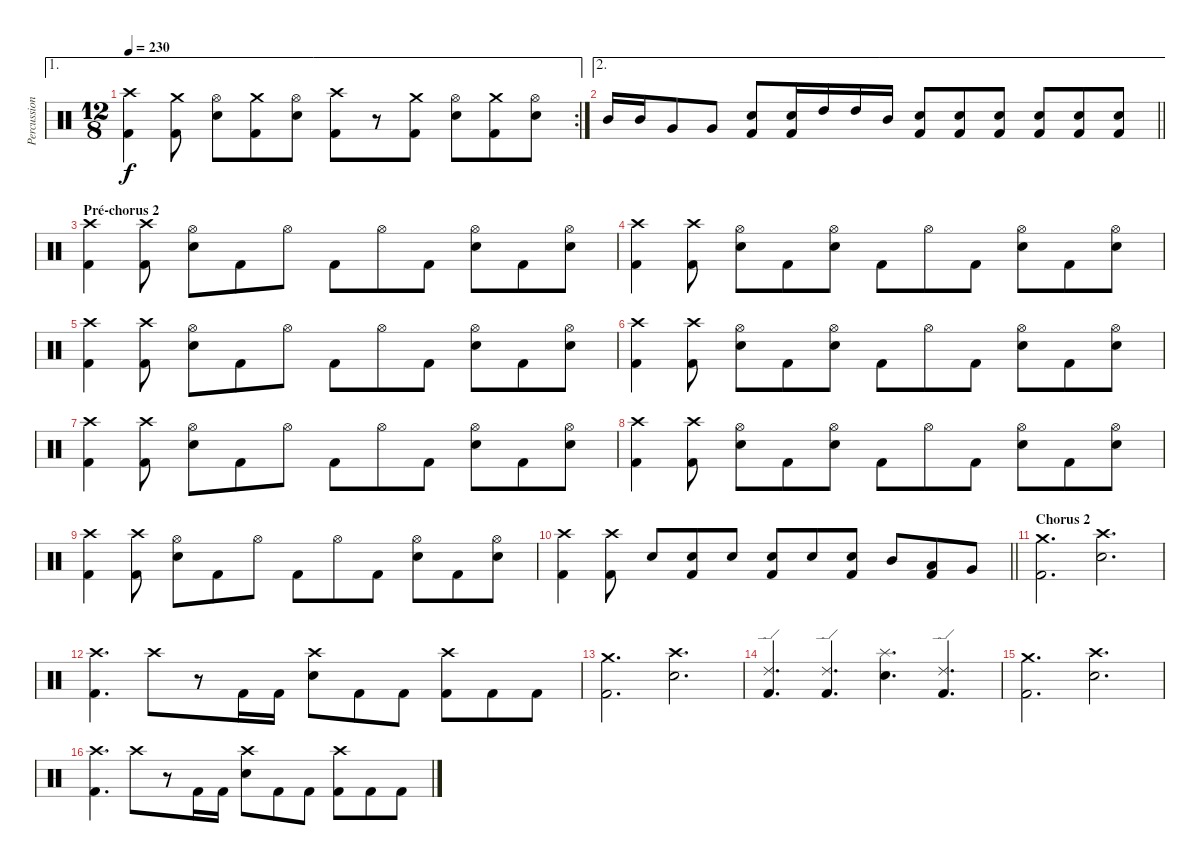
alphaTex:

\track ("Percussions" "Percussion") {instrument percussion}
\staff {score}
\articulation defaults
\ae 1
\rc 2
\ts (12 8)
\tempo 230
\clef neutral
\ks c
("Crash high (hit)" "Kick (hit) 2").4{dy f} ("Crash medium (hit)" "Kick (hit) 2").8 ("Hi-Hat (open)" "Electric Snare (hit)").8 ("Crash medium (hit)" "Kick (hit) 2").8 ("Hi-Hat (open)" "Electric Snare (hit)").8 ("Crash high (hit)" "Kick (hit) 2").8 r.8 ("Crash medium (hit)" "Kick (hit) 2").8 ("Hi-Hat (open)" "Electric Snare (hit)").8 ("Crash medium (hit)" "Kick (hit) 2").8 ("Hi-Hat (open)" "Electric Snare (hit)").8 |
\ae 2
\barLineRight lightlight "Mid Tom (hit)".16 "Mid Tom (hit)".16 "Very Low Tom (hit)".8 "Very Low Tom (hit)".8
("Electric Snare (hit)" "Kick (hit) 2").8 ("Electric Snare (hit)" "Kick (hit) 2").16 "High Tom (hit)".16 "High Tom (hit)".16 "Mid Tom (hit)".16 ("Electric Snare (hit)" "Kick (hit) 2").8 ("Electric Snare (hit)" "Kick (hit) 2").8 ("Electric Snare (hit)" "Kick (hit) 2").8 ("Electric Snare (hit)" "Kick (hit) 2").8 ("Electric Snare (hit)" "Kick (hit) 2").8 ("Electric Snare (hit)" "Kick (hit) 2").8 |
\section ("" "Pré-chorus 2")
("Crash high (hit)" "Kick (hit) 2").4 ("Crash high (hit)" "Kick (hit) 2").8 ("Hi-Hat (open)" "Electric Snare (hit)").8 "Kick (hit) 2".8 "Hi-Hat (open)".8 "Kick (hit) 2".8 "Hi-Hat (open)".8 "Kick (hit) 2".8 ("Hi-Hat (open)" "Electric Snare (hit)").8 "Kick (hit) 2".8 ("Hi-Hat (open)" "Electric Snare (hit)").8 |
("Crash high (hit)" "Kick (hit) 2").4 ("Crash high (hit)" "Kick (hit) 2").8 ("Hi-Hat (open)" "Electric Snare (hit)").8 "Kick (hit) 2".8 ("Hi-Hat (open)" "Electric Snare (hit)").8 "Kick (hit) 2".8 "Hi-Hat (open)".8 "Kick (hit) 2".8 ("Hi-Hat (open)" "Electric Snare (hit)").8 "Kick (hit) 2".8 ("Hi-Hat (open)" "Electric Snare (hit)").8 |
("Crash high (hit)" "Kick (hit) 2").4 ("Crash high (hit)" "Kick (hit) 2").8 ("Hi-Hat (open)" "Electric Snare (hit)").8 "Kick (hit) 2".8 "Hi-Hat (open)".8 "Kick (hit) 2".8 "Hi-Hat (open)".8 "Kick (hit) 2".8 ("Hi-Hat (open)" "Electric Snare (hit)").8 "Kick (hit) 2".8 ("Hi-Hat (open)" "Electric Snare (hit)").8 |
("Crash high (hit)" "Kick (hit) 2").4 ("Crash high (hit)" "Kick (hit) 2").8 ("Hi-Hat (open)" "Electric Snare (hit)").8 "Kick (hit) 2".8 ("Hi-Hat (open)" "Electric Snare (hit)").8 "Kick (hit) 2".8 "Hi-Hat (open)".8 "Kick (hit) 2".8 ("Hi-Hat (open)" "Electric Snare (hit)").8 "Kick (hit) 2".8 ("Hi-Hat (open)" "Electric Snare (hit)").8 |
("Crash high (hit)" "Kick (hit) 2").4 ("Crash high (hit)" "Kick (hit) 2").8 ("Hi-Hat (open)" "Electric Snare (hit)").8 "Kick (hit) 2".8 "Hi-Hat (open)".8 "Kick (hit) 2".8 "Hi-Hat (open)".8 "Kick (hit) 2".8 ("Hi-Hat (open)" "Electric Snare (hit)").8 "Kick (hit) 2".8 ("Hi-Hat (open)" "Electric Snare (hit)").8 |
("Crash high (hit)" "Kick (hit) 2").4 ("Crash high (hit)" "Kick (hit) 2").8 ("Hi-Hat (open)" "Electric Snare (hit)").8 "Kick (hit) 2".8 ("Hi-Hat (open)" "Electric Snare (hit)").8 "Kick (hit) 2".8 "Hi-Hat (open)".8 "Kick (hit) 2".8 ("Hi-Hat (open)" "Electric Snare (hit)").8 "Kick (hit) 2".8 ("Hi-Hat (open)" "Electric Snare (hit)").8 |
("Crash high (hit)" "Kick (hit) 2").4 ("Crash high (hit)" "Kick (hit) 2").8 ("Hi-Hat (open)" "Electric Snare (hit)").8 "Kick (hit) 2".8 "Hi-Hat (open)".8 "Kick (hit) 2".8 "Hi-Hat (open)".8 "Kick (hit) 2".8 ("Hi-Hat (open)" "Electric Snare (hit)").8 "Kick (hit) 2".8 ("Hi-Hat (open)" "Electric Snare (hit)").8 |
\barLineRight lightlight
("Crash high (hit)" "Kick (hit) 2").4 ("Crash high (hit)" "Kick (hit) 2").8 "Electric Snare (hit)".8 ("Electric Snare (hit)" "Kick (hit) 2").8 "Electric Snare (hit)".8 ("Electric Snare (hit)" "Kick (hit) 2").8 "Electric Snare (hit)".8 ("Electric Snare (hit)" "Kick (hit) 2").8 "Mid Tom (hit)".8 ("Low Tom (hit)" "Kick (hit) 2").8 "Very Low Tom (hit)".8 |
\section ("" "Chorus 2")
("Crash medium (hit)" "Kick (hit) 2").2{d} ("Crash high (hit)" "Electric Snare (hit)").2{d} |
("Crash high (hit)" "Kick (hit) 2").4{d} "Crash high (hit)".8 r.8 "Kick (hit) 2".16 "Kick (hit) 2".16 ("Crash high (hit)" "Electric Snare (hit)").8 "Kick (hit) 2".8 "Kick (hit) 2".8 ("Crash high (hit)" "Kick (hit) 2").8 "Kick (hit) 2".8 "Kick (hit) 2".8 |
("Crash medium (hit)" "Kick (hit) 2").2{d} ("Crash high (hit)" "Electric Snare (hit)").2{d} |
("Ride (edge) 2" "Kick (hit) 2").4{d} ("Ride (edge) 2" "Kick (hit) 2").4{d} ("Splash (hit)" "Electric Snare (hit)").4{d} ("Ride (edge) 2" "Kick (hit) 2").4{d} |
("Crash medium (hit)" "Kick (hit) 2").2{d} ("Crash high (hit)" "Electric Snare (hit)").2{d} |
("Crash high (hit)" "Kick (hit) 2").4{d} "Crash high (hit)".8 r.8 "Kick (hit) 2".16 "Kick (hit) 2".16 ("Crash high (hit)" "Electric Snare (hit)").8 "Kick (hit) 2".8 "Kick (hit) 2".8 ("Crash high (hit)" "Kick (hit) 2").8 "Kick (hit) 2".8 "Kick (hit) 2".8
